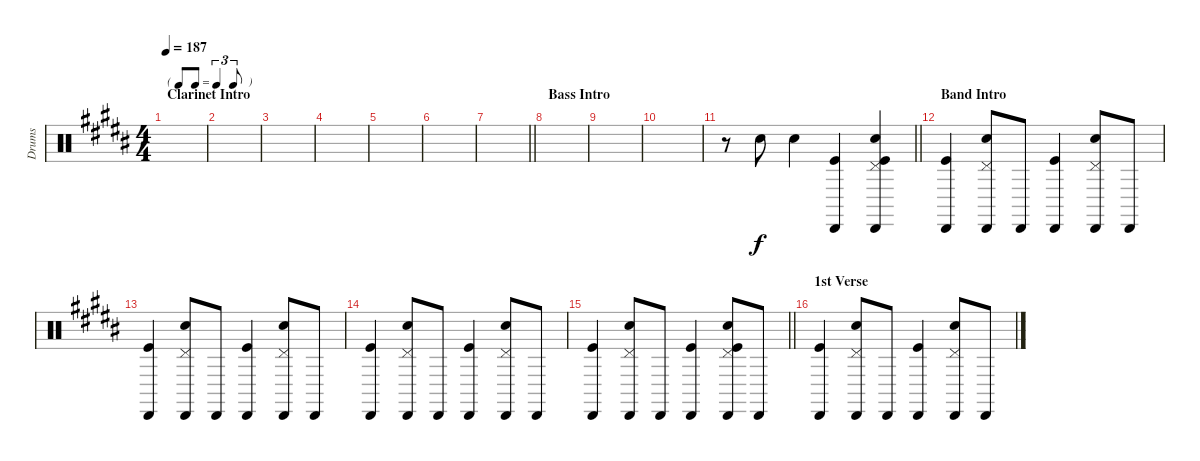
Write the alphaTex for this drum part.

\track ("Drums" "Drums") {instrument percussion}
\staff {score}
\articulation defaults
\ts (4 4)
\tf triplet8th
\section ("" "Clarinet Intro")
\tempo 187
\clef neutral
\ks b
|
|
|
|
|
|
\barLineRight lightlight
|
\section ("" "Bass Intro")
|
|
|
\barLineRight lightlight
r.8 "Snare (hit) 2".8 "Snare (hit) 2".4 ("Cabasa (hit)" "Kick (hit)").4 ("Pedal Hi-Hat (hit)" "Cabasa (hit)" "Snare (hit) 2" "Kick (hit)").4 |
\section ("" "Band Intro")
("Cabasa (hit)" "Kick (hit)").4 ("Pedal Hi-Hat (hit)" "Cabasa (hit)" "Snare (hit) 2").8 "Cabasa (hit)".8 ("Cabasa (hit)" "Kick (hit)").4 ("Pedal Hi-Hat (hit)" "Cabasa (hit)" "Snare (hit) 2").8 "Cabasa (hit)".8 |
("Cabasa (hit)" "Kick (hit)").4 ("Pedal Hi-Hat (hit)" "Cabasa (hit)" "Snare (hit) 2").8 "Cabasa (hit)".8 ("Cabasa (hit)" "Kick (hit)").4 ("Pedal Hi-Hat (hit)" "Cabasa (hit)" "Snare (hit) 2").8 "Cabasa (hit)".8 |
("Cabasa (hit)" "Kick (hit)").4 ("Pedal Hi-Hat (hit)" "Cabasa (hit)" "Snare (hit) 2").8 "Cabasa (hit)".8 ("Cabasa (hit)" "Kick (hit)").4 ("Pedal Hi-Hat (hit)" "Cabasa (hit)" "Snare (hit) 2").8 "Cabasa (hit)".8 |
\barLineRight lightlight
("Cabasa (hit)" "Kick (hit)").4 ("Pedal Hi-Hat (hit)" "Cabasa (hit)" "Snare (hit) 2").8 "Cabasa (hit)".8 ("Cabasa (hit)" "Kick (hit)").4 ("Pedal Hi-Hat (hit)" "Cabasa (hit)" "Snare (hit) 2" "Kick (hit)").8 "Cabasa (hit)".8 |
\section ("" "1st Verse")
("Cabasa (hit)" "Kick (hit)").4 ("Pedal Hi-Hat (hit)" "Cabasa (hit)" "Snare (hit) 2").8 "Cabasa (hit)".8 ("Cabasa (hit)" "Kick (hit)").4 ("Pedal Hi-Hat (hit)" "Cabasa (hit)" "Snare (hit) 2").8 "Cabasa (hit)".8
